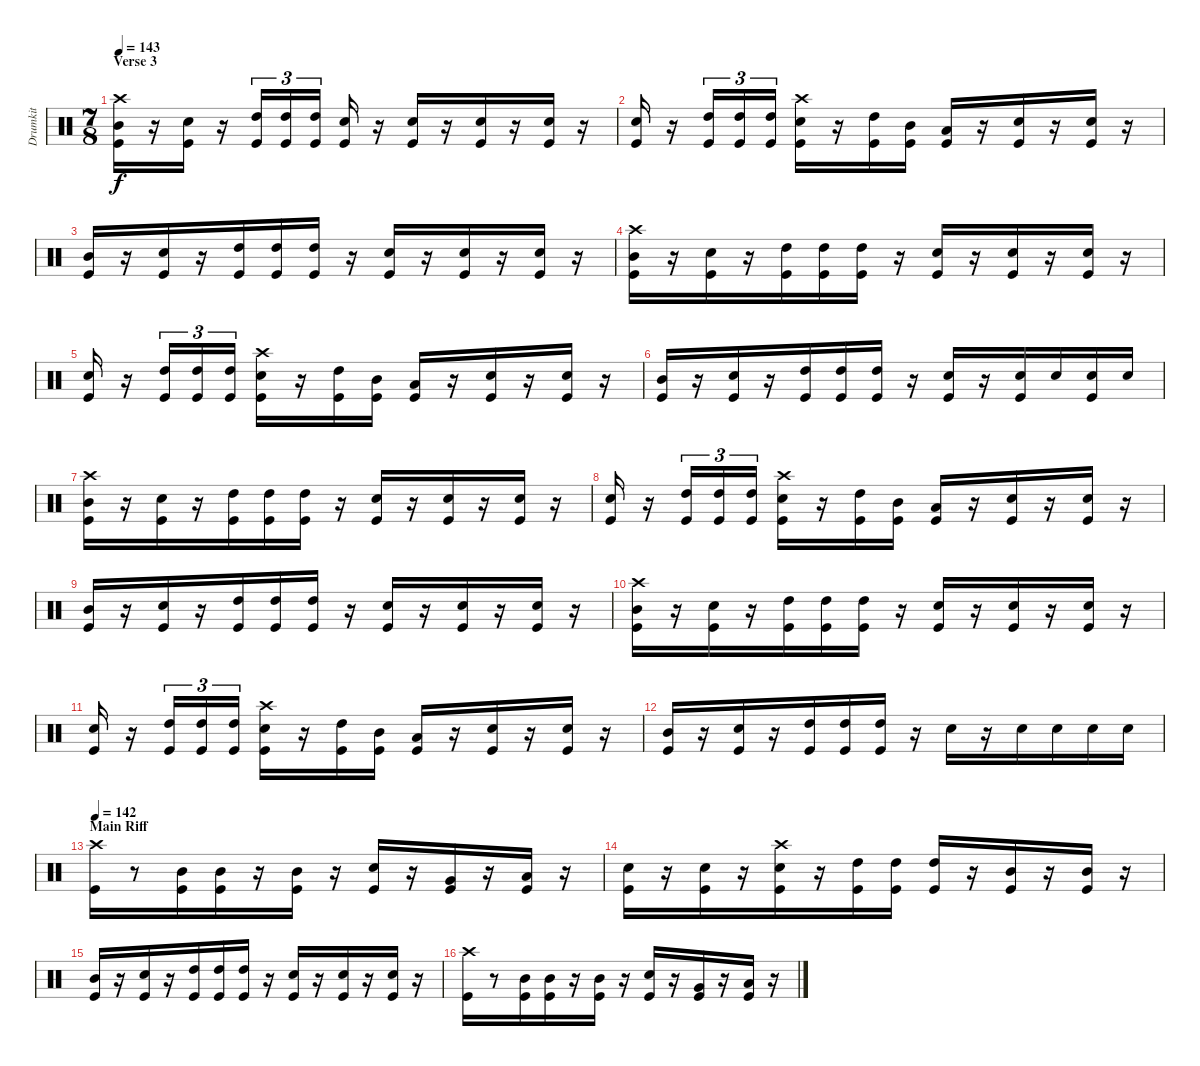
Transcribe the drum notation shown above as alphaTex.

\track ("Drumkit" "Drumkit") {instrument percussion}
\staff {score}
\articulation defaults
\ts (7 8)
\section ("" "Verse 3")
\tempo 143
\clef neutral
\ks c
("Crash high (hit)" "Mid Tom (hit)" "Kick (hit)").16{dy f} r.16 ("Snare (hit) 2" "Kick (hit)").16 r.16 ("High Tom (hit)" "Kick (hit)").16{tu (3 2)} ("High Tom (hit)" "Kick (hit)").16{tu (3 2)} ("High Tom (hit)" "Kick (hit)").16{tu (3 2)} ("Snare (hit) 2" "Kick (hit)").16 r.16 ("Snare (hit) 2" "Kick (hit)").16 r.16 ("Snare (hit) 2" "Kick (hit)").16 r.16 ("Snare (hit) 2" "Kick (hit)").16 r.16 |
("Snare (hit) 2" "Kick (hit)").16 r.16 ("High Tom (hit)" "Kick (hit)").16{tu (3 2)} ("High Tom (hit)" "Kick (hit)").16{tu (3 2)} ("High Tom (hit)" "Kick (hit)").16{tu (3 2)} ("Crash high (hit)" "Snare (hit) 2" "Kick (hit)").16 r.16 ("High Tom (hit)" "Kick (hit)").16 ("Mid Tom (hit)" "Kick (hit)").16 ("Low Tom (hit)" "Kick (hit)").16 r.16 ("Snare (hit) 2" "Kick (hit)").16 r.16 ("Snare (hit) 2" "Kick (hit)").16 r.16 |
("Mid Tom (hit)" "Kick (hit)").16 r.16 ("Snare (hit) 2" "Kick (hit)").16 r.16 ("High Tom (hit)" "Kick (hit)").16 ("High Tom (hit)" "Kick (hit)").16 ("High Tom (hit)" "Kick (hit)").16 r.16 ("Snare (hit) 2" "Kick (hit)").16 r.16 ("Snare (hit) 2" "Kick (hit)").16 r.16 ("Snare (hit) 2" "Kick (hit)").16 r.16 |
("Crash high (hit)" "Mid Tom (hit)" "Kick (hit)").16 r.16 ("Snare (hit) 2" "Kick (hit)").16 r.16 ("High Tom (hit)" "Kick (hit)").16 ("High Tom (hit)" "Kick (hit)").16 ("High Tom (hit)" "Kick (hit)").16 r.16 ("Snare (hit) 2" "Kick (hit)").16 r.16 ("Snare (hit) 2" "Kick (hit)").16 r.16 ("Snare (hit) 2" "Kick (hit)").16 r.16 |
("Snare (hit) 2" "Kick (hit)").16 r.16 ("High Tom (hit)" "Kick (hit)").16{tu (3 2)} ("High Tom (hit)" "Kick (hit)").16{tu (3 2)} ("High Tom (hit)" "Kick (hit)").16{tu (3 2)} ("Crash high (hit)" "Snare (hit) 2" "Kick (hit)").16 r.16 ("High Tom (hit)" "Kick (hit)").16 ("Mid Tom (hit)" "Kick (hit)").16 ("Low Tom (hit)" "Kick (hit)").16 r.16 ("Snare (hit) 2" "Kick (hit)").16 r.16 ("Snare (hit) 2" "Kick (hit)").16 r.16 |
("Mid Tom (hit)" "Kick (hit)").16 r.16 ("Snare (hit) 2" "Kick (hit)").16 r.16 ("High Tom (hit)" "Kick (hit)").16 ("High Tom (hit)" "Kick (hit)").16 ("High Tom (hit)" "Kick (hit)").16 r.16 ("Snare (hit) 2" "Kick (hit)").16 r.16 ("Snare (hit) 2" "Kick (hit)").16 "Snare (hit) 2".16 ("Snare (hit) 2" "Kick (hit)").16 "Snare (hit) 2".16 |
("Crash high (hit)" "Mid Tom (hit)" "Kick (hit)").16 r.16 ("Snare (hit) 2" "Kick (hit)").16 r.16 ("High Tom (hit)" "Kick (hit)").16 ("High Tom (hit)" "Kick (hit)").16 ("High Tom (hit)" "Kick (hit)").16 r.16 ("Snare (hit) 2" "Kick (hit)").16 r.16 ("Snare (hit) 2" "Kick (hit)").16 r.16 ("Snare (hit) 2" "Kick (hit)").16 r.16 |
("Snare (hit) 2" "Kick (hit)").16 r.16 ("High Tom (hit)" "Kick (hit)").16{tu (3 2)} ("High Tom (hit)" "Kick (hit)").16{tu (3 2)} ("High Tom (hit)" "Kick (hit)").16{tu (3 2)} ("Crash high (hit)" "Snare (hit) 2" "Kick (hit)").16 r.16 ("High Tom (hit)" "Kick (hit)").16 ("Mid Tom (hit)" "Kick (hit)").16 ("Low Tom (hit)" "Kick (hit)").16 r.16 ("Snare (hit) 2" "Kick (hit)").16 r.16 ("Snare (hit) 2" "Kick (hit)").16 r.16 |
("Mid Tom (hit)" "Kick (hit)").16 r.16 ("Snare (hit) 2" "Kick (hit)").16 r.16 ("High Tom (hit)" "Kick (hit)").16 ("High Tom (hit)" "Kick (hit)").16 ("High Tom (hit)" "Kick (hit)").16 r.16 ("Snare (hit) 2" "Kick (hit)").16 r.16 ("Snare (hit) 2" "Kick (hit)").16 r.16 ("Snare (hit) 2" "Kick (hit)").16 r.16 |
("Crash high (hit)" "Mid Tom (hit)" "Kick (hit)").16 r.16 ("Snare (hit) 2" "Kick (hit)").16 r.16 ("High Tom (hit)" "Kick (hit)").16 ("High Tom (hit)" "Kick (hit)").16 ("High Tom (hit)" "Kick (hit)").16 r.16 ("Snare (hit) 2" "Kick (hit)").16 r.16 ("Snare (hit) 2" "Kick (hit)").16 r.16 ("Snare (hit) 2" "Kick (hit)").16 r.16 |
("Snare (hit) 2" "Kick (hit)").16 r.16 ("High Tom (hit)" "Kick (hit)").16{tu (3 2)} ("High Tom (hit)" "Kick (hit)").16{tu (3 2)} ("High Tom (hit)" "Kick (hit)").16{tu (3 2)} ("Crash high (hit)" "Snare (hit) 2" "Kick (hit)").16 r.16 ("High Tom (hit)" "Kick (hit)").16 ("Mid Tom (hit)" "Kick (hit)").16 ("Low Tom (hit)" "Kick (hit)").16 r.16 ("Snare (hit) 2" "Kick (hit)").16 r.16 ("Snare (hit) 2" "Kick (hit)").16 r.16 |
("Mid Tom (hit)" "Kick (hit)").16 r.16 ("Snare (hit) 2" "Kick (hit)").16 r.16 ("High Tom (hit)" "Kick (hit)").16 ("High Tom (hit)" "Kick (hit)").16 ("High Tom (hit)" "Kick (hit)").16 r.16 "Snare (hit) 2".16 r.16 "Snare (hit) 2".16 "Snare (hit) 2".16 "Snare (hit) 2".16 "Snare (hit) 2".16 |
\section ("" "Main Riff")
\tempo 142
("Crash high (hit)" "Kick (hit)").16 r.8 ("Mid Tom (hit)" "Kick (hit)").16 ("Mid Tom (hit)" "Kick (hit)").16 r.16 ("Mid Tom (hit)" "Kick (hit)").16 r.16 ("Snare (hit) 2" "Kick (hit)").16 r.16 ("Very Low Tom (hit)" "Kick (hit)").16 r.16 ("Low Tom (hit)" "Kick (hit)").16 r.16 |
("Snare (hit) 2" "Kick (hit)").16 r.16 ("Snare (hit) 2" "Kick (hit)").16 r.16 ("Crash high (hit)" "Snare (hit) 2" "Kick (hit)").16 r.16 ("High Tom (hit)" "Kick (hit)").16 ("High Tom (hit)" "Kick (hit)").16 ("High Tom (hit)" "Kick (hit)").16 r.16 ("Mid Tom (hit)" "Kick (hit)").16 r.16 ("Mid Tom (hit)" "Kick (hit)").16 r.16 |
("Mid Tom (hit)" "Kick (hit)").16 r.16 ("Snare (hit) 2" "Kick (hit)").16 r.16 ("High Tom (hit)" "Kick (hit)").16 ("High Tom (hit)" "Kick (hit)").16 ("High Tom (hit)" "Kick (hit)").16 r.16 ("Snare (hit) 2" "Kick (hit)").16 r.16 ("Snare (hit) 2" "Kick (hit)").16 r.16 ("Snare (hit) 2" "Kick (hit)").16 r.16 |
("Crash high (hit)" "Kick (hit)").16 r.8 ("Mid Tom (hit)" "Kick (hit)").16 ("Mid Tom (hit)" "Kick (hit)").16 r.16 ("Mid Tom (hit)" "Kick (hit)").16 r.16 ("Snare (hit) 2" "Kick (hit)").16 r.16 ("Very Low Tom (hit)" "Kick (hit)").16 r.16 ("Low Tom (hit)" "Kick (hit)").16 r.16
